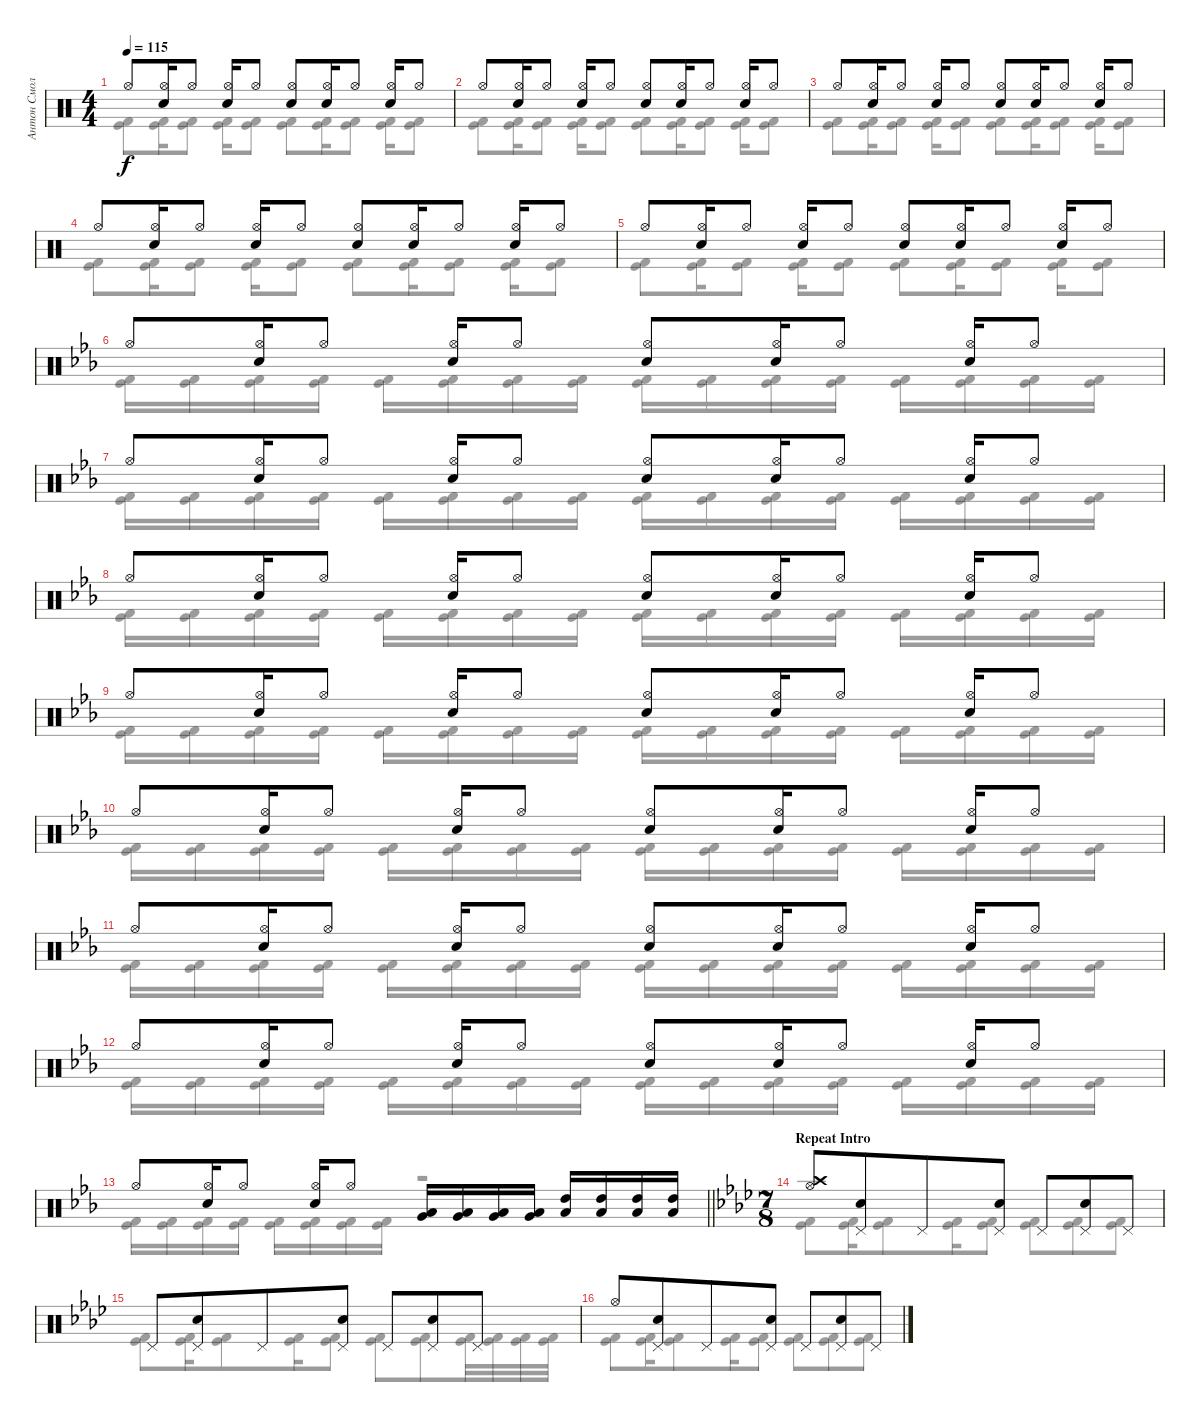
\track ("Антон Смольянин" "Антон Смол") {instrument percussion}
\staff {score}
\articulation defaults
\voice
\ts (4 4)
\tempo 115
\clef neutral
\ks c "Hi-Hat (open)".8{dy f}
("Snare (hit) 2" "Hi-Hat (open)").16 "Hi-Hat (open)".8 ("Snare (hit) 2" "Hi-Hat (open)").16 "Hi-Hat (open)".8 ("Snare (hit) 2" "Hi-Hat (open)").8 ("Snare (hit) 2" "Hi-Hat (open)").16 "Hi-Hat (open)".8 ("Snare (hit) 2" "Hi-Hat (open)").16 "Hi-Hat (open)".8 |
"Hi-Hat (open)".8 ("Snare (hit) 2" "Hi-Hat (open)").16 "Hi-Hat (open)".8 ("Snare (hit) 2" "Hi-Hat (open)").16 "Hi-Hat (open)".8 ("Snare (hit) 2" "Hi-Hat (open)").8 ("Snare (hit) 2" "Hi-Hat (open)").16 "Hi-Hat (open)".8 ("Snare (hit) 2" "Hi-Hat (open)").16 "Hi-Hat (open)".8 |
"Hi-Hat (open)".8 ("Snare (hit) 2" "Hi-Hat (open)").16 "Hi-Hat (open)".8 ("Snare (hit) 2" "Hi-Hat (open)").16 "Hi-Hat (open)".8 ("Snare (hit) 2" "Hi-Hat (open)").8 ("Snare (hit) 2" "Hi-Hat (open)").16 "Hi-Hat (open)".8 ("Snare (hit) 2" "Hi-Hat (open)").16 "Hi-Hat (open)".8 |
"Hi-Hat (open)".8 ("Snare (hit) 2" "Hi-Hat (open)").16 "Hi-Hat (open)".8 ("Snare (hit) 2" "Hi-Hat (open)").16 "Hi-Hat (open)".8 ("Snare (hit) 2" "Hi-Hat (open)").8 ("Snare (hit) 2" "Hi-Hat (open)").16 "Hi-Hat (open)".8 ("Snare (hit) 2" "Hi-Hat (open)").16 "Hi-Hat (open)".8 |
"Hi-Hat (open)".8 ("Snare (hit) 2" "Hi-Hat (open)").16 "Hi-Hat (open)".8 ("Snare (hit) 2" "Hi-Hat (open)").16 "Hi-Hat (open)".8 ("Snare (hit) 2" "Hi-Hat (open)").8 ("Snare (hit) 2" "Hi-Hat (open)").16 "Hi-Hat (open)".8 ("Snare (hit) 2" "Hi-Hat (open)").16 "Hi-Hat (open)".8 |
\ks eb "Hi-Hat (open)".8
("Snare (hit) 2" "Hi-Hat (open)").16 "Hi-Hat (open)".8 ("Snare (hit) 2" "Hi-Hat (open)").16 "Hi-Hat (open)".8 ("Snare (hit) 2" "Hi-Hat (open)").8 ("Snare (hit) 2" "Hi-Hat (open)").16 "Hi-Hat (open)".8 ("Snare (hit) 2" "Hi-Hat (open)").16 "Hi-Hat (open)".8 |
"Hi-Hat (open)".8 ("Snare (hit) 2" "Hi-Hat (open)").16 "Hi-Hat (open)".8 ("Snare (hit) 2" "Hi-Hat (open)").16 "Hi-Hat (open)".8 ("Snare (hit) 2" "Hi-Hat (open)").8 ("Snare (hit) 2" "Hi-Hat (open)").16 "Hi-Hat (open)".8 ("Snare (hit) 2" "Hi-Hat (open)").16 "Hi-Hat (open)".8 |
"Hi-Hat (open)".8 ("Snare (hit) 2" "Hi-Hat (open)").16 "Hi-Hat (open)".8 ("Snare (hit) 2" "Hi-Hat (open)").16 "Hi-Hat (open)".8 ("Snare (hit) 2" "Hi-Hat (open)").8 ("Snare (hit) 2" "Hi-Hat (open)").16 "Hi-Hat (open)".8 ("Snare (hit) 2" "Hi-Hat (open)").16 "Hi-Hat (open)".8 |
"Hi-Hat (open)".8 ("Snare (hit) 2" "Hi-Hat (open)").16 "Hi-Hat (open)".8 ("Snare (hit) 2" "Hi-Hat (open)").16 "Hi-Hat (open)".8 ("Snare (hit) 2" "Hi-Hat (open)").8 ("Snare (hit) 2" "Hi-Hat (open)").16 "Hi-Hat (open)".8 ("Snare (hit) 2" "Hi-Hat (open)").16 "Hi-Hat (open)".8 |
"Hi-Hat (open)".8 ("Snare (hit) 2" "Hi-Hat (open)").16 "Hi-Hat (open)".8 ("Snare (hit) 2" "Hi-Hat (open)").16 "Hi-Hat (open)".8 ("Snare (hit) 2" "Hi-Hat (open)").8 ("Snare (hit) 2" "Hi-Hat (open)").16 "Hi-Hat (open)".8 ("Snare (hit) 2" "Hi-Hat (open)").16 "Hi-Hat (open)".8 |
"Hi-Hat (open)".8 ("Snare (hit) 2" "Hi-Hat (open)").16 "Hi-Hat (open)".8 ("Snare (hit) 2" "Hi-Hat (open)").16 "Hi-Hat (open)".8 ("Snare (hit) 2" "Hi-Hat (open)").8 ("Snare (hit) 2" "Hi-Hat (open)").16 "Hi-Hat (open)".8 ("Snare (hit) 2" "Hi-Hat (open)").16 "Hi-Hat (open)".8 |
"Hi-Hat (open)".8 ("Snare (hit) 2" "Hi-Hat (open)").16 "Hi-Hat (open)".8 ("Snare (hit) 2" "Hi-Hat (open)").16 "Hi-Hat (open)".8 ("Snare (hit) 2" "Hi-Hat (open)").8 ("Snare (hit) 2" "Hi-Hat (open)").16 "Hi-Hat (open)".8 ("Snare (hit) 2" "Hi-Hat (open)").16 "Hi-Hat (open)".8 |
\barLineRight lightlight "Hi-Hat (open)".8
("Snare (hit) 2" "Hi-Hat (open)").16 "Hi-Hat (open)".8 ("Snare (hit) 2" "Hi-Hat (open)").16 "Hi-Hat (open)".8 ("Low Tom (hit)" "Very Low Tom (hit)").16 ("Low Tom (hit)" "Very Low Tom (hit)").16 ("Low Tom (hit)" "Very Low Tom (hit)").16 ("Low Tom (hit)" "Very Low Tom (hit)").16 ("High Tom (hit)" "Low Tom (hit)").16 ("High Tom (hit)" "Low Tom (hit)").16 ("High Tom (hit)" "Low Tom (hit)").16 ("High Tom (hit)" "Low Tom (hit)").16 |
\ts (7 8)
\section ("" "Repeat Intro")
\ks ab
("Hi-Hat (open)" "Crash high (hit)").8 ("Electric Snare (hit)" "Pedal Hi-Hat (hit)").8 "Pedal Hi-Hat (hit)".8 ("Electric Snare (hit)" "Pedal Hi-Hat (hit)").8 "Pedal Hi-Hat (hit)".8 ("Electric Snare (hit)" "Pedal Hi-Hat (hit)").8 "Pedal Hi-Hat (hit)".8 |
"Pedal Hi-Hat (hit)".8 ("Electric Snare (hit)" "Pedal Hi-Hat (hit)").8 "Pedal Hi-Hat (hit)".8 ("Electric Snare (hit)" "Pedal Hi-Hat (hit)").8 "Pedal Hi-Hat (hit)".8 ("Electric Snare (hit)" "Pedal Hi-Hat (hit)").8 "Pedal Hi-Hat (hit)".8 |
"Hi-Hat (open)".8 ("Electric Snare (hit)" "Pedal Hi-Hat (hit)").8 "Pedal Hi-Hat (hit)".8 ("Electric Snare (hit)" "Pedal Hi-Hat (hit)").8 "Pedal Hi-Hat (hit)".8 ("Electric Snare (hit)" "Pedal Hi-Hat (hit)").8 "Pedal Hi-Hat (hit)".8
\voice
\clef neutral
\ottava regular
\simile none
\ks c
("Kick (hit) 2" "Kick (hit)").8{dy f} ("Kick (hit) 2" "Kick (hit)").16 ("Kick (hit) 2" "Kick (hit)").8 ("Kick (hit) 2" "Kick (hit)").16 ("Kick (hit) 2" "Kick (hit)").8 ("Kick (hit) 2" "Kick (hit)").8 ("Kick (hit) 2" "Kick (hit)").16 ("Kick (hit) 2" "Kick (hit)").8 ("Kick (hit) 2" "Kick (hit)").16 ("Kick (hit) 2" "Kick (hit)").8 |
("Kick (hit) 2" "Kick (hit)").8 ("Kick (hit) 2" "Kick (hit)").16 ("Kick (hit) 2" "Kick (hit)").8 ("Kick (hit) 2" "Kick (hit)").16 ("Kick (hit) 2" "Kick (hit)").8 ("Kick (hit) 2" "Kick (hit)").8 ("Kick (hit) 2" "Kick (hit)").16 ("Kick (hit) 2" "Kick (hit)").8 ("Kick (hit) 2" "Kick (hit)").16 ("Kick (hit) 2" "Kick (hit)").8 |
("Kick (hit) 2" "Kick (hit)").8 ("Kick (hit) 2" "Kick (hit)").16 ("Kick (hit) 2" "Kick (hit)").8 ("Kick (hit) 2" "Kick (hit)").16 ("Kick (hit) 2" "Kick (hit)").8 ("Kick (hit) 2" "Kick (hit)").8 ("Kick (hit) 2" "Kick (hit)").16 ("Kick (hit) 2" "Kick (hit)").8 ("Kick (hit) 2" "Kick (hit)").16 ("Kick (hit) 2" "Kick (hit)").8 |
("Kick (hit) 2" "Kick (hit)").8 ("Kick (hit) 2" "Kick (hit)").16 ("Kick (hit) 2" "Kick (hit)").8 ("Kick (hit) 2" "Kick (hit)").16 ("Kick (hit) 2" "Kick (hit)").8 ("Kick (hit) 2" "Kick (hit)").8 ("Kick (hit) 2" "Kick (hit)").16 ("Kick (hit) 2" "Kick (hit)").8 ("Kick (hit) 2" "Kick (hit)").16 ("Kick (hit) 2" "Kick (hit)").8 |
("Kick (hit) 2" "Kick (hit)").8 ("Kick (hit) 2" "Kick (hit)").16 ("Kick (hit) 2" "Kick (hit)").8 ("Kick (hit) 2" "Kick (hit)").16 ("Kick (hit) 2" "Kick (hit)").8 ("Kick (hit) 2" "Kick (hit)").8 ("Kick (hit) 2" "Kick (hit)").16 ("Kick (hit) 2" "Kick (hit)").8 ("Kick (hit) 2" "Kick (hit)").16 ("Kick (hit) 2" "Kick (hit)").8 |
\ks eb
("Kick (hit) 2" "Kick (hit)").16 ("Kick (hit) 2" "Kick (hit)").16 ("Kick (hit) 2" "Kick (hit)").16 ("Kick (hit) 2" "Kick (hit)").16 ("Kick (hit) 2" "Kick (hit)").16 ("Kick (hit) 2" "Kick (hit)").16 ("Kick (hit) 2" "Kick (hit)").16 ("Kick (hit) 2" "Kick (hit)").16 ("Kick (hit) 2" "Kick (hit)").16 ("Kick (hit) 2" "Kick (hit)").16 ("Kick (hit) 2" "Kick (hit)").16 ("Kick (hit) 2" "Kick (hit)").16 ("Kick (hit) 2" "Kick (hit)").16 ("Kick (hit) 2" "Kick (hit)").16 ("Kick (hit) 2" "Kick (hit)").16 ("Kick (hit) 2" "Kick (hit)").16 |
("Kick (hit) 2" "Kick (hit)").16 ("Kick (hit) 2" "Kick (hit)").16 ("Kick (hit) 2" "Kick (hit)").16 ("Kick (hit) 2" "Kick (hit)").16 ("Kick (hit) 2" "Kick (hit)").16 ("Kick (hit) 2" "Kick (hit)").16 ("Kick (hit) 2" "Kick (hit)").16 ("Kick (hit) 2" "Kick (hit)").16 ("Kick (hit) 2" "Kick (hit)").16 ("Kick (hit) 2" "Kick (hit)").16 ("Kick (hit) 2" "Kick (hit)").16 ("Kick (hit) 2" "Kick (hit)").16 ("Kick (hit) 2" "Kick (hit)").16 ("Kick (hit) 2" "Kick (hit)").16 ("Kick (hit) 2" "Kick (hit)").16 ("Kick (hit) 2" "Kick (hit)").16 |
("Kick (hit) 2" "Kick (hit)").16 ("Kick (hit) 2" "Kick (hit)").16 ("Kick (hit) 2" "Kick (hit)").16 ("Kick (hit) 2" "Kick (hit)").16 ("Kick (hit) 2" "Kick (hit)").16 ("Kick (hit) 2" "Kick (hit)").16 ("Kick (hit) 2" "Kick (hit)").16 ("Kick (hit) 2" "Kick (hit)").16 ("Kick (hit) 2" "Kick (hit)").16 ("Kick (hit) 2" "Kick (hit)").16 ("Kick (hit) 2" "Kick (hit)").16 ("Kick (hit) 2" "Kick (hit)").16 ("Kick (hit) 2" "Kick (hit)").16 ("Kick (hit) 2" "Kick (hit)").16 ("Kick (hit) 2" "Kick (hit)").16 ("Kick (hit) 2" "Kick (hit)").16 |
("Kick (hit) 2" "Kick (hit)").16 ("Kick (hit) 2" "Kick (hit)").16 ("Kick (hit) 2" "Kick (hit)").16 ("Kick (hit) 2" "Kick (hit)").16 ("Kick (hit) 2" "Kick (hit)").16 ("Kick (hit) 2" "Kick (hit)").16 ("Kick (hit) 2" "Kick (hit)").16 ("Kick (hit) 2" "Kick (hit)").16 ("Kick (hit) 2" "Kick (hit)").16 ("Kick (hit) 2" "Kick (hit)").16 ("Kick (hit) 2" "Kick (hit)").16 ("Kick (hit) 2" "Kick (hit)").16 ("Kick (hit) 2" "Kick (hit)").16 ("Kick (hit) 2" "Kick (hit)").16 ("Kick (hit) 2" "Kick (hit)").16 ("Kick (hit) 2" "Kick (hit)").16 |
("Kick (hit) 2" "Kick (hit)").16 ("Kick (hit) 2" "Kick (hit)").16 ("Kick (hit) 2" "Kick (hit)").16 ("Kick (hit) 2" "Kick (hit)").16 ("Kick (hit) 2" "Kick (hit)").16 ("Kick (hit) 2" "Kick (hit)").16 ("Kick (hit) 2" "Kick (hit)").16 ("Kick (hit) 2" "Kick (hit)").16 ("Kick (hit) 2" "Kick (hit)").16 ("Kick (hit) 2" "Kick (hit)").16 ("Kick (hit) 2" "Kick (hit)").16 ("Kick (hit) 2" "Kick (hit)").16 ("Kick (hit) 2" "Kick (hit)").16 ("Kick (hit) 2" "Kick (hit)").16 ("Kick (hit) 2" "Kick (hit)").16 ("Kick (hit) 2" "Kick (hit)").16 |
("Kick (hit) 2" "Kick (hit)").16 ("Kick (hit) 2" "Kick (hit)").16 ("Kick (hit) 2" "Kick (hit)").16 ("Kick (hit) 2" "Kick (hit)").16 ("Kick (hit) 2" "Kick (hit)").16 ("Kick (hit) 2" "Kick (hit)").16 ("Kick (hit) 2" "Kick (hit)").16 ("Kick (hit) 2" "Kick (hit)").16 ("Kick (hit) 2" "Kick (hit)").16 ("Kick (hit) 2" "Kick (hit)").16 ("Kick (hit) 2" "Kick (hit)").16 ("Kick (hit) 2" "Kick (hit)").16 ("Kick (hit) 2" "Kick (hit)").16 ("Kick (hit) 2" "Kick (hit)").16 ("Kick (hit) 2" "Kick (hit)").16 ("Kick (hit) 2" "Kick (hit)").16 |
("Kick (hit) 2" "Kick (hit)").16 ("Kick (hit) 2" "Kick (hit)").16 ("Kick (hit) 2" "Kick (hit)").16 ("Kick (hit) 2" "Kick (hit)").16 ("Kick (hit) 2" "Kick (hit)").16 ("Kick (hit) 2" "Kick (hit)").16 ("Kick (hit) 2" "Kick (hit)").16 ("Kick (hit) 2" "Kick (hit)").16 ("Kick (hit) 2" "Kick (hit)").16 ("Kick (hit) 2" "Kick (hit)").16 ("Kick (hit) 2" "Kick (hit)").16 ("Kick (hit) 2" "Kick (hit)").16 ("Kick (hit) 2" "Kick (hit)").16 ("Kick (hit) 2" "Kick (hit)").16 ("Kick (hit) 2" "Kick (hit)").16 ("Kick (hit) 2" "Kick (hit)").16 |
\barLineRight lightlight
("Kick (hit) 2" "Kick (hit)").16 ("Kick (hit) 2" "Kick (hit)").16 ("Kick (hit) 2" "Kick (hit)").16 ("Kick (hit) 2" "Kick (hit)").16 ("Kick (hit) 2" "Kick (hit)").16 ("Kick (hit) 2" "Kick (hit)").16 ("Kick (hit) 2" "Kick (hit)").16 ("Kick (hit) 2" "Kick (hit)").16 r.2 |
\ks ab
("Kick (hit) 2" "Kick (hit)").8 ("Kick (hit) 2" "Kick (hit)").16 ("Kick (hit) 2" "Kick (hit)").8 ("Kick (hit) 2" "Kick (hit)").16 ("Kick (hit) 2" "Kick (hit)").8 ("Kick (hit) 2" "Kick (hit)").8 ("Kick (hit) 2" "Kick (hit)").8 ("Kick (hit) 2" "Kick (hit)").8 |
("Kick (hit) 2" "Kick (hit)").8 ("Kick (hit) 2" "Kick (hit)").16 ("Kick (hit) 2" "Kick (hit)").8 ("Kick (hit) 2" "Kick (hit)").16 ("Kick (hit) 2" "Kick (hit)").8 ("Kick (hit) 2" "Kick (hit)").8 ("Kick (hit) 2" "Kick (hit)").8 ("Kick (hit) 2" "Kick (hit)").32 ("Kick (hit) 2" "Kick (hit)").32 ("Kick (hit) 2" "Kick (hit)").32 ("Kick (hit) 2" "Kick (hit)").32 |
("Kick (hit) 2" "Kick (hit)").8 ("Kick (hit) 2" "Kick (hit)").16 ("Kick (hit) 2" "Kick (hit)").8 ("Kick (hit) 2" "Kick (hit)").16 ("Kick (hit) 2" "Kick (hit)").8 ("Kick (hit) 2" "Kick (hit)").8 ("Kick (hit) 2" "Kick (hit)").8 ("Kick (hit) 2" "Kick (hit)").8
